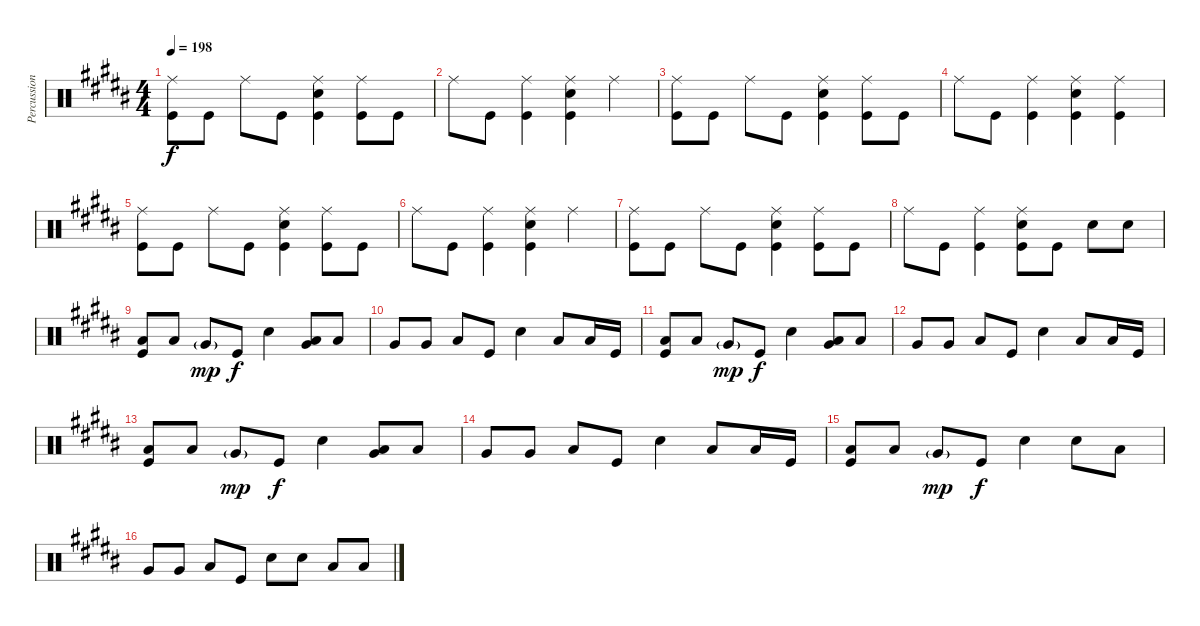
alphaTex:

\track ("Percussion" "Percussion") {instrument percussion}
\staff {score}
\articulation defaults
\ts (4 4)
\tempo 198
\clef neutral
\ks b
("Ride (middle)" "Kick (hit)").8{dy f} "Kick (hit)".8 "Ride (middle)".8 "Kick (hit)".8 ("Ride (middle)" "Electric Snare (hit)" "Kick (hit)").4 ("Ride (middle)" "Kick (hit)").8 "Kick (hit)".8 |
"Ride (middle)".8 "Kick (hit)".8 ("Ride (middle)" "Kick (hit)").4 ("Ride (middle)" "Electric Snare (hit)" "Kick (hit)").4 "Ride (middle)".4 |
("Ride (middle)" "Kick (hit)").8 "Kick (hit)".8 "Ride (middle)".8 "Kick (hit)".8 ("Ride (middle)" "Electric Snare (hit)" "Kick (hit)").4 ("Ride (middle)" "Kick (hit)").8 "Kick (hit)".8 |
"Ride (middle)".8 "Kick (hit)".8 ("Ride (middle)" "Kick (hit)").4 ("Ride (middle)" "Electric Snare (hit)" "Kick (hit)").4 ("Ride (middle)" "Kick (hit)").4 |
("Ride (middle)" "Kick (hit)").8 "Kick (hit)".8 "Ride (middle)".8 "Kick (hit)".8 ("Ride (middle)" "Electric Snare (hit)" "Kick (hit)").4 ("Ride (middle)" "Kick (hit)").8 "Kick (hit)".8 |
"Ride (middle)".8 "Kick (hit)".8 ("Ride (middle)" "Kick (hit)").4 ("Ride (middle)" "Electric Snare (hit)" "Kick (hit)").4 "Ride (middle)".4 |
("Ride (middle)" "Kick (hit)").8 "Kick (hit)".8 "Ride (middle)".8 "Kick (hit)".8 ("Ride (middle)" "Electric Snare (hit)" "Kick (hit)").4 ("Ride (middle)" "Kick (hit)").8 "Kick (hit)".8 |
"Ride (middle)".8 "Kick (hit)".8 ("Ride (middle)" "Kick (hit)").4 ("Ride (middle)" "Electric Snare (hit)" "Kick (hit)").8 "Kick (hit)".8 "Electric Snare (hit)".8 "Electric Snare (hit)".8 |
("Low Tom (hit)" "Kick (hit)").8 "Low Tom (hit)".8 "Very Low Tom (hit)"{g}.8{dy mp} "Kick (hit)".8{dy f} "Electric Snare (hit)".4 ("Very Low Tom (hit)" "Low Floor Tom (hit)").8 "Low Tom (hit)".8 |
"Very Low Tom (hit)".8 "Very Low Tom (hit)".8 "Low Floor Tom (hit)".8 "Kick (hit)".8 "Electric Snare (hit)".4 "Low Tom (hit)".8 "Low Floor Tom (hit)".16 "Kick (hit)".16 |
("Low Tom (hit)" "Kick (hit)").8 "Low Tom (hit)".8 "Very Low Tom (hit)"{g}.8{dy mp} "Kick (hit)".8{dy f} "Electric Snare (hit)".4 ("Very Low Tom (hit)" "Low Floor Tom (hit)").8 "Low Tom (hit)".8 |
"Very Low Tom (hit)".8 "Very Low Tom (hit)".8 "Low Floor Tom (hit)".8 "Kick (hit)".8 "Electric Snare (hit)".4 "Low Tom (hit)".8 "Low Floor Tom (hit)".16 "Kick (hit)".16 |
("Low Tom (hit)" "Kick (hit)").8 "Low Tom (hit)".8 "Very Low Tom (hit)"{g}.8{dy mp} "Kick (hit)".8{dy f} "Electric Snare (hit)".4 ("Very Low Tom (hit)" "Low Floor Tom (hit)").8 "Low Tom (hit)".8 |
"Very Low Tom (hit)".8 "Very Low Tom (hit)".8 "Low Floor Tom (hit)".8 "Kick (hit)".8 "Electric Snare (hit)".4 "Low Tom (hit)".8 "Low Floor Tom (hit)".16 "Kick (hit)".16 |
("Low Tom (hit)" "Kick (hit)").8 "Low Tom (hit)".8 "Very Low Tom (hit)"{g}.8{dy mp} "Kick (hit)".8{dy f} "Electric Snare (hit)".4 "Electric Snare (hit)".8 "Low Tom (hit)".8 |
"Very Low Tom (hit)".8 "Very Low Tom (hit)".8 "Low Floor Tom (hit)".8 "Kick (hit)".8 "Electric Snare (hit)".8 "Electric Snare (hit)".8 "Low Tom (hit)".8 "Low Floor Tom (hit)".8
